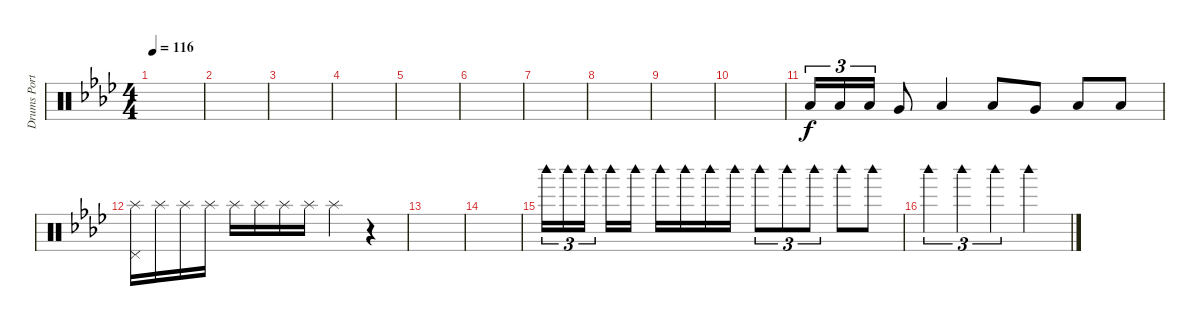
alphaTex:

\track ("Drums Portnoy" "Drums Port") {instrument percussion}
\staff {score}
\articulation defaults
\ts (4 4)
\tempo 116
\clef neutral
\ks ab
|
|
|
|
|
|
|
|
|
|
"Low Tom (hit)".16{tu (3 2)} "Low Tom (hit)".16{tu (3 2)} "Low Tom (hit)".16{tu (3 2)} "Very Low Tom (hit)".8 "Low Floor Tom (hit)".4 "Low Tom (hit)".8 "Very Low Tom (hit)".8 "Low Floor Tom (hit)".8 "Low Floor Tom (hit)".8 |
("Pedal Hi-Hat (hit)" "Splash (hit)").16 "Splash (hit)".16 "Splash (hit)".16 "Splash (hit)".16 "Splash (hit)".16 "Splash (hit)".16 "Splash (hit)".16 "Splash (hit)".16 "Splash (hit)".4 r.4 |
|
|
"Woodblock high (hit)".16{tu (3 2)} "Woodblock high (hit)".16{tu (3 2)} "Woodblock high (hit)".16{tu (3 2) beam splitsecondary} "Woodblock high (hit)".16 "Woodblock high (hit)".16 "Woodblock high (hit)".16 "Woodblock high (hit)".16 "Woodblock high (hit)".16 "Woodblock high (hit)".16 "Woodblock high (hit)".8{tu (3 2)} "Woodblock high (hit)".8{tu (3 2)} "Woodblock high (hit)".8{tu (3 2)} "Woodblock high (hit)".8 "Woodblock high (hit)".8 |
"Woodblock high (hit)".4{tu (3 2)} "Woodblock high (hit)".4{tu (3 2)} "Woodblock high (hit)".4{tu (3 2)} "Woodblock high (hit)".2
